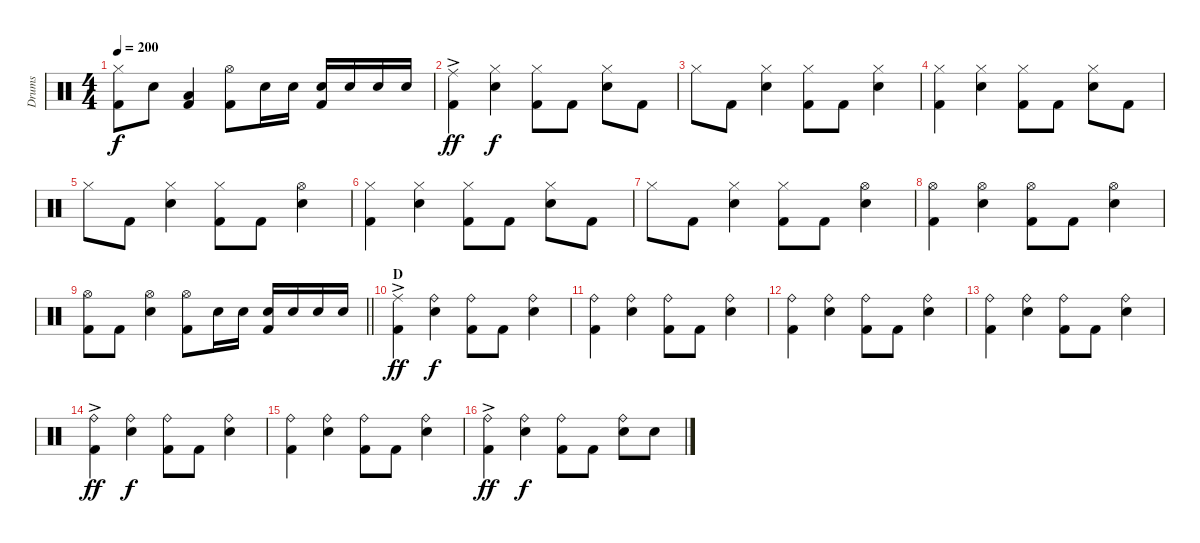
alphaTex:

\track ("Drums" "Drums") {instrument percussion}
\staff {score}
\articulation defaults
\ts (4 4)
\tempo 200
\clef neutral
\ks c
("Hi-Hat (closed)" "Kick (hit) 2").8{dy f} "Snare (hit) 2".8 ("Low Tom (hit)" "Kick (hit) 2").4 ("Hi-Hat (open)" "Kick (hit) 2").8 "Snare (hit) 2".16 "Snare (hit) 2".16 ("Snare (hit) 2" "Kick (hit) 2").16 "Snare (hit) 2".16 "Snare (hit) 2".16 "Snare (hit) 2".16 |
("Ride (middle)"{ac} "Kick (hit) 2").4{dy ff} ("Hi-Hat (closed)" "Snare (hit) 2").4{dy f} ("Hi-Hat (closed)" "Kick (hit) 2").8 "Kick (hit) 2".8 ("Hi-Hat (closed)" "Snare (hit) 2").8 "Kick (hit) 2".8 |
"Hi-Hat (closed)".8 "Kick (hit) 2".8 ("Hi-Hat (closed)" "Snare (hit) 2").4 ("Hi-Hat (closed)" "Kick (hit) 2").8 "Kick (hit) 2".8 ("Hi-Hat (closed)" "Snare (hit) 2").4 |
("Hi-Hat (closed)" "Kick (hit) 2").4 ("Hi-Hat (closed)" "Snare (hit) 2").4 ("Hi-Hat (closed)" "Kick (hit) 2").8 "Kick (hit) 2".8 ("Hi-Hat (closed)" "Snare (hit) 2").8 "Kick (hit) 2".8 |
"Hi-Hat (closed)".8 "Kick (hit) 2".8 ("Hi-Hat (closed)" "Snare (hit) 2").4 ("Hi-Hat (closed)" "Kick (hit) 2").8 "Kick (hit) 2".8 ("Hi-Hat (open)" "Snare (hit) 2").4 |
("Hi-Hat (closed)" "Kick (hit) 2").4 ("Hi-Hat (closed)" "Snare (hit) 2").4 ("Hi-Hat (closed)" "Kick (hit) 2").8 "Kick (hit) 2".8 ("Hi-Hat (closed)" "Snare (hit) 2").8 "Kick (hit) 2".8 |
"Hi-Hat (closed)".8 "Kick (hit) 2".8 ("Hi-Hat (closed)" "Snare (hit) 2").4 ("Hi-Hat (closed)" "Kick (hit) 2").8 "Kick (hit) 2".8 ("Hi-Hat (open)" "Snare (hit) 2").4 |
("Hi-Hat (open)" "Kick (hit) 2").4 ("Hi-Hat (open)" "Snare (hit) 2").4 ("Hi-Hat (open)" "Kick (hit) 2").8 "Kick (hit) 2".8 ("Hi-Hat (open)" "Snare (hit) 2").4 |
\barLineRight lightlight
("Hi-Hat (open)" "Kick (hit) 2").8 "Kick (hit) 2".8 ("Hi-Hat (open)" "Snare (hit) 2").4 ("Hi-Hat (open)" "Kick (hit) 2").8 "Snare (hit) 2".16 "Snare (hit) 2".16 ("Snare (hit) 2" "Kick (hit) 2").16 "Snare (hit) 2".16 "Snare (hit) 2".16 "Snare (hit) 2".16 |
\section ("" "D")
("Ride (middle)"{ac} "Kick (hit) 2").4{dy ff} ("Ride (bell)" "Snare (hit) 2").4{dy f} ("Ride (bell)" "Kick (hit) 2").8 "Kick (hit) 2".8 ("Ride (bell)" "Snare (hit) 2").4 |
("Ride (bell)" "Kick (hit) 2").4 ("Ride (bell)" "Snare (hit) 2").4 ("Ride (bell)" "Kick (hit) 2").8 "Kick (hit) 2".8 ("Ride (bell)" "Snare (hit) 2").4 |
("Ride (bell)" "Kick (hit) 2").4 ("Ride (bell)" "Snare (hit) 2").4 ("Ride (bell)" "Kick (hit) 2").8 "Kick (hit) 2".8 ("Ride (bell)" "Snare (hit) 2").4 |
("Ride (bell)" "Kick (hit) 2").4 ("Ride (bell)" "Snare (hit) 2").4 ("Ride (bell)" "Kick (hit) 2").8 "Kick (hit) 2".8 ("Ride (bell)" "Snare (hit) 2").4 |
("Ride (bell)"{ac} "Kick (hit) 2").4{dy ff} ("Ride (bell)" "Snare (hit) 2").4{dy f} ("Ride (bell)" "Kick (hit) 2").8 "Kick (hit) 2".8 ("Ride (bell)" "Snare (hit) 2").4 |
("Ride (bell)" "Kick (hit) 2").4 ("Ride (bell)" "Snare (hit) 2").4 ("Ride (bell)" "Kick (hit) 2").8 "Kick (hit) 2".8 ("Ride (bell)" "Snare (hit) 2").4 |
("Ride (bell)"{ac} "Kick (hit) 2").4{dy ff} ("Ride (bell)" "Snare (hit) 2").4{dy f} ("Ride (bell)" "Kick (hit) 2").8 "Kick (hit) 2".8 ("Ride (bell)" "Snare (hit) 2").8 "Snare (hit) 2".8
